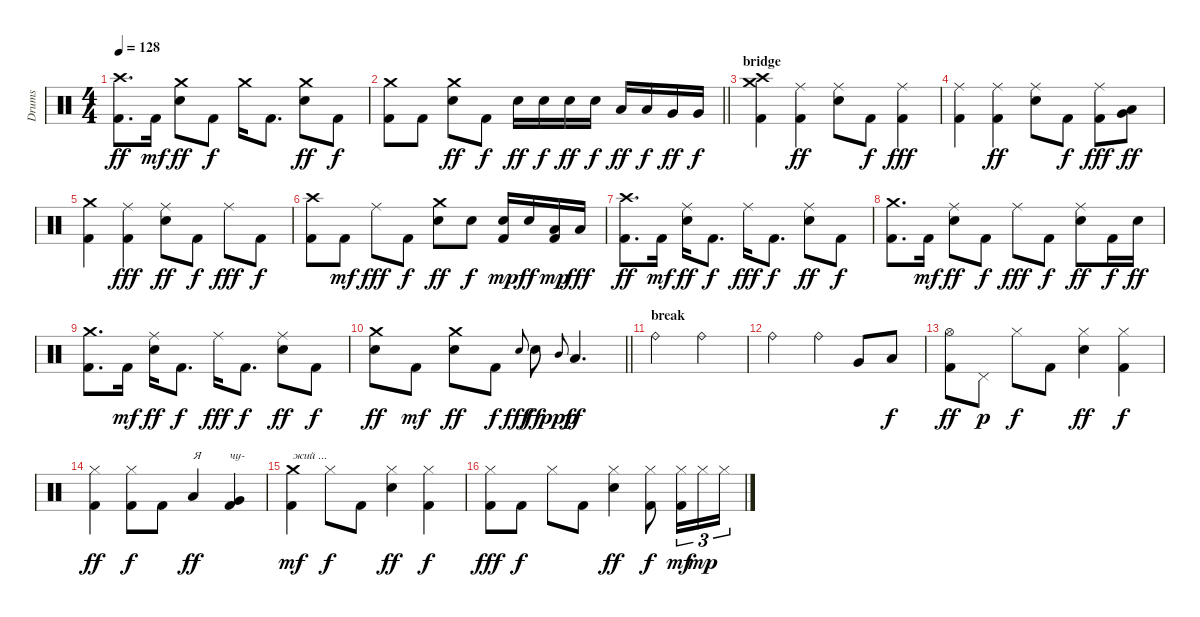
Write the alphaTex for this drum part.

\track ("Drums" "Drums") {instrument percussion}
\staff {score}
\articulation defaults
\ts (4 4)
\tempo 128
\clef neutral
\ks c
("Crash high (hit)" "Kick (hit) 2").8{d dy ff} "Kick (hit) 2".16{dy mf} ("Crash medium (hit)" "Electric Snare (hit)").8{dy ff} "Kick (hit) 2".8{dy f} "Crash medium (hit)".16 "Kick (hit) 2".8{d} ("Crash medium (hit)" "Electric Snare (hit)").8{dy ff} "Kick (hit) 2".8{dy f} |
\barLineRight lightlight
("Crash medium (hit)" "Kick (hit) 2").8 "Kick (hit) 2".8 ("Crash medium (hit)" "Electric Snare (hit)").8{dy ff} "Kick (hit) 2".8{dy f} "Electric Snare (hit)".16{dy ff} "Electric Snare (hit)".16{dy f} "Electric Snare (hit)".16{dy ff} "Electric Snare (hit)".16{dy f} "Low Tom (hit)".16{dy ff} "Low Tom (hit)".16{dy f} "Very Low Tom (hit)".16{dy ff} "Very Low Tom (hit)".16{dy f} |
\section ("" "bridge")
("Crash medium (hit)" "Crash high (hit)" "Kick (hit) 2").4 ("Ride (middle)" "Kick (hit) 2").4{dy ff} ("Ride (middle)" "Electric Snare (hit)").8 "Kick (hit) 2".8{dy f} ("Ride (middle)" "Kick (hit) 2").4{dy fff} |
("Ride (middle)" "Kick (hit) 2").4 ("Ride (middle)" "Kick (hit) 2").4{dy ff} ("Ride (middle)" "Electric Snare (hit)").8 "Kick (hit) 2".8{dy f} ("Ride (middle)" "Kick (hit) 2").8{dy fff} ("Very Low Tom (hit)" "Low Tom (hit)").8{dy ff} |
("Crash medium (hit)" "Kick (hit) 2").4 ("Ride (middle)" "Kick (hit) 2").4{dy fff} ("Ride (middle)" "Electric Snare (hit)").8{dy ff} "Kick (hit) 2".8{dy f} "Ride (middle)".8{dy fff} "Kick (hit) 2".8{dy f} |
("Crash high (hit)" "Kick (hit) 2").8 "Kick (hit) 2".8{dy mf} "Ride (middle)".8{dy fff} "Kick (hit) 2".8{dy f} ("Crash medium (hit)" "Electric Snare (hit)").8{dy ff} "Electric Snare (hit)".8{dy f} ("Electric Snare (hit)" "Kick (hit) 2").16{dy mp} "Electric Snare (hit)".16{dy ff} ("Low Tom (hit)" "Kick (hit) 2").16{dy mp} "Low Tom (hit)".16{dy fff} |
("Crash high (hit)" "Kick (hit) 2").8{d dy ff} "Kick (hit) 2".16{dy mf} ("Ride (middle)" "Electric Snare (hit)").16{dy ff} "Kick (hit) 2".8{d dy f} "Ride (middle)".16{dy fff} "Kick (hit) 2".8{d dy f} ("Ride (middle)" "Electric Snare (hit)").8{dy ff} "Kick (hit) 2".8{dy f} |
("Crash medium (hit)" "Kick (hit) 2").8{d} "Kick (hit) 2".16{dy mf} ("Ride (middle)" "Electric Snare (hit)").8{dy ff} "Kick (hit) 2".8{dy f} "Ride (middle)".8{dy fff} "Kick (hit) 2".8{dy f} ("Ride (middle)" "Electric Snare (hit)").8{dy ff} "Kick (hit) 2".16{dy f} "Electric Snare (hit)".16{dy ff} |
("Crash medium (hit)" "Kick (hit) 2").8{d} "Kick (hit) 2".16{dy mf} ("Ride (middle)" "Electric Snare (hit)").16{dy ff} "Kick (hit) 2".8{d dy f} "Ride (middle)".16{dy fff} "Kick (hit) 2".8{d dy f} ("Ride (middle)" "Electric Snare (hit)").8{dy ff} "Kick (hit) 2".8{dy f} |
\barLineRight lightlight
("Crash medium (hit)" "Electric Snare (hit)").8{dy ff} "Kick (hit) 2".8{dy mf} ("Crash medium (hit)" "Electric Snare (hit)").8{dy ff} "Kick (hit) 2".8{dy f} "Snare (hit) 2"{x}.8{gr onbeat dy fff} "Electric Snare (hit)".8{dy ff} "Mid Tom (hit)"{x}.8{gr onbeat dy ppp} "Low Tom (hit)".4{d dy ff} |
\section ("" "break")
"Ride (bell)".2 "Ride (bell)".2 |
"Ride (bell)".2 "Ride (bell)".4 "Very Low Tom (hit)".8 "Low Tom (hit)".8{dy f} |
("Hi-Hat (open)" "Kick (hit) 2").8{dy ff} "Pedal Hi-Hat (hit)".8{dy p} "Hi-Hat (closed)".8{dy f} "Kick (hit) 2".8 ("Hi-Hat (closed)" "Electric Snare (hit)").4{dy ff} ("Hi-Hat (closed)" "Kick (hit) 2").4{dy f} |
("Hi-Hat (closed)" "Kick (hit) 2").4{dy ff} ("Hi-Hat (closed)" "Kick (hit) 2").8{dy f} "Kick (hit) 2".8 "Low Tom (hit)".4{txt "Я" dy ff} ("Very Low Tom (hit)" "Kick (hit) 2").4{txt "чу-"} |
("Crash medium (hit)" "Kick (hit) 2").4{txt "жий ..." dy mf} "Hi-Hat (closed)".8{dy f} "Kick (hit) 2".8 ("Hi-Hat (closed)" "Electric Snare (hit)").4{dy ff} ("Hi-Hat (closed)" "Kick (hit) 2").4{dy f} |
("Hi-Hat (closed)" "Kick (hit) 2").8{dy fff} "Kick (hit) 2".8{dy f} "Hi-Hat (closed)".8 "Kick (hit) 2".8 ("Hi-Hat (closed)" "Electric Snare (hit)").4{dy ff} ("Hi-Hat (closed)" "Kick (hit) 2").8{dy f} ("Hi-Hat (closed)" "Kick (hit) 2").16{tu (3 2) dy mf} "Hi-Hat (closed)".16{tu (3 2) dy mp} "Hi-Hat (closed)".16{tu (3 2)}
